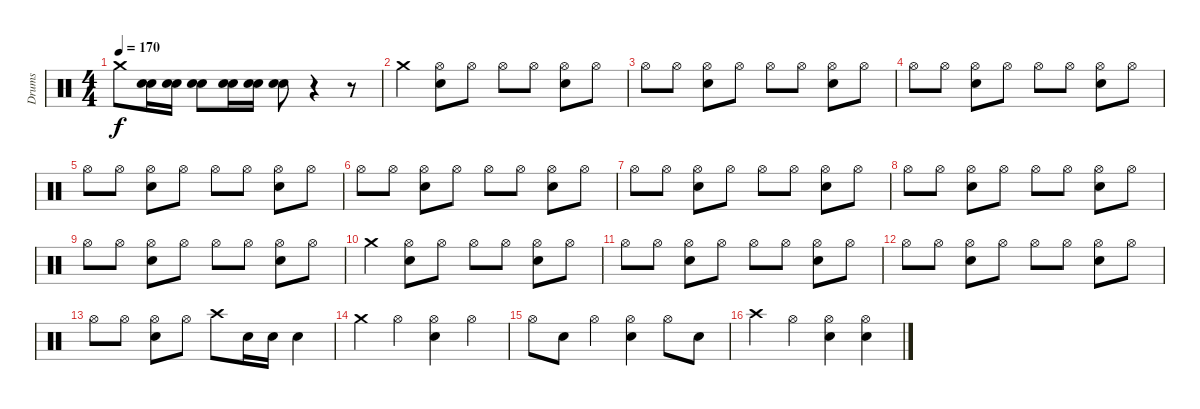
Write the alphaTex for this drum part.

\track ("Drums" "Drums") {instrument percussion}
\staff {score}
\articulation defaults
\ts (4 4)
\tempo 170
\clef neutral
\ks c "Crash medium (hit)".8{dy f}
("Electric Snare (hit)" "Metronome (bell)").16 ("Electric Snare (hit)" "Metronome (bell)").16 ("Electric Snare (hit)" "Metronome (bell)").8 ("Electric Snare (hit)" "Metronome (bell)").16 ("Electric Snare (hit)" "Metronome (bell)").16 ("Electric Snare (hit)" "Metronome (bell)").8 r.4 r.8 |
"Crash medium (hit)".4 ("Electric Snare (hit)" "Hi-Hat (open)").8 "Hi-Hat (open)".8 "Hi-Hat (open)".8 "Hi-Hat (open)".8 ("Electric Snare (hit)" "Hi-Hat (open)").8 "Hi-Hat (open)".8 |
"Hi-Hat (open)".8 "Hi-Hat (open)".8 ("Electric Snare (hit)" "Hi-Hat (open)").8 "Hi-Hat (open)".8 "Hi-Hat (open)".8 "Hi-Hat (open)".8 ("Electric Snare (hit)" "Hi-Hat (open)").8 "Hi-Hat (open)".8 |
"Hi-Hat (open)".8 "Hi-Hat (open)".8 ("Electric Snare (hit)" "Hi-Hat (open)").8 "Hi-Hat (open)".8 "Hi-Hat (open)".8 "Hi-Hat (open)".8 ("Electric Snare (hit)" "Hi-Hat (open)").8 "Hi-Hat (open)".8 |
"Hi-Hat (open)".8 "Hi-Hat (open)".8 ("Electric Snare (hit)" "Hi-Hat (open)").8 "Hi-Hat (open)".8 "Hi-Hat (open)".8 "Hi-Hat (open)".8 ("Electric Snare (hit)" "Hi-Hat (open)").8 "Hi-Hat (open)".8 |
"Hi-Hat (open)".8 "Hi-Hat (open)".8 ("Electric Snare (hit)" "Hi-Hat (open)").8 "Hi-Hat (open)".8 "Hi-Hat (open)".8 "Hi-Hat (open)".8 ("Electric Snare (hit)" "Hi-Hat (open)").8 "Hi-Hat (open)".8 |
"Hi-Hat (open)".8 "Hi-Hat (open)".8 ("Electric Snare (hit)" "Hi-Hat (open)").8 "Hi-Hat (open)".8 "Hi-Hat (open)".8 "Hi-Hat (open)".8 ("Electric Snare (hit)" "Hi-Hat (open)").8 "Hi-Hat (open)".8 |
"Hi-Hat (open)".8 "Hi-Hat (open)".8 ("Electric Snare (hit)" "Hi-Hat (open)").8 "Hi-Hat (open)".8 "Hi-Hat (open)".8 "Hi-Hat (open)".8 ("Electric Snare (hit)" "Hi-Hat (open)").8 "Hi-Hat (open)".8 |
"Hi-Hat (open)".8 "Hi-Hat (open)".8 ("Electric Snare (hit)" "Hi-Hat (open)").8 "Hi-Hat (open)".8 "Hi-Hat (open)".8 "Hi-Hat (open)".8 ("Electric Snare (hit)" "Hi-Hat (open)").8 "Hi-Hat (open)".8 |
"Crash medium (hit)".4 ("Electric Snare (hit)" "Hi-Hat (open)").8 "Hi-Hat (open)".8 "Hi-Hat (open)".8 "Hi-Hat (open)".8 ("Electric Snare (hit)" "Hi-Hat (open)").8 "Hi-Hat (open)".8 |
"Hi-Hat (open)".8 "Hi-Hat (open)".8 ("Electric Snare (hit)" "Hi-Hat (open)").8 "Hi-Hat (open)".8 "Hi-Hat (open)".8 "Hi-Hat (open)".8 ("Electric Snare (hit)" "Hi-Hat (open)").8 "Hi-Hat (open)".8 |
"Hi-Hat (open)".8 "Hi-Hat (open)".8 ("Electric Snare (hit)" "Hi-Hat (open)").8 "Hi-Hat (open)".8 "Hi-Hat (open)".8 "Hi-Hat (open)".8 ("Electric Snare (hit)" "Hi-Hat (open)").8 "Hi-Hat (open)".8 |
"Hi-Hat (open)".8 "Hi-Hat (open)".8 ("Electric Snare (hit)" "Hi-Hat (open)").8 "Hi-Hat (open)".8 "Crash high (hit)".8 "Electric Snare (hit)".16 "Electric Snare (hit)".16 "Electric Snare (hit)".4 |
"Crash medium (hit)".4 "Hi-Hat (open)".4 ("Electric Snare (hit)" "Hi-Hat (open)").4 "Hi-Hat (open)".4 |
"Hi-Hat (open)".8 "Electric Snare (hit)".8 "Hi-Hat (open)".4 ("Electric Snare (hit)" "Hi-Hat (open)").4 "Hi-Hat (open)".8 "Electric Snare (hit)".8 |
"Crash high (hit)".4 "Hi-Hat (open)".4 ("Electric Snare (hit)" "Hi-Hat (open)").4 ("Electric Snare (hit)" "Hi-Hat (open)").4
